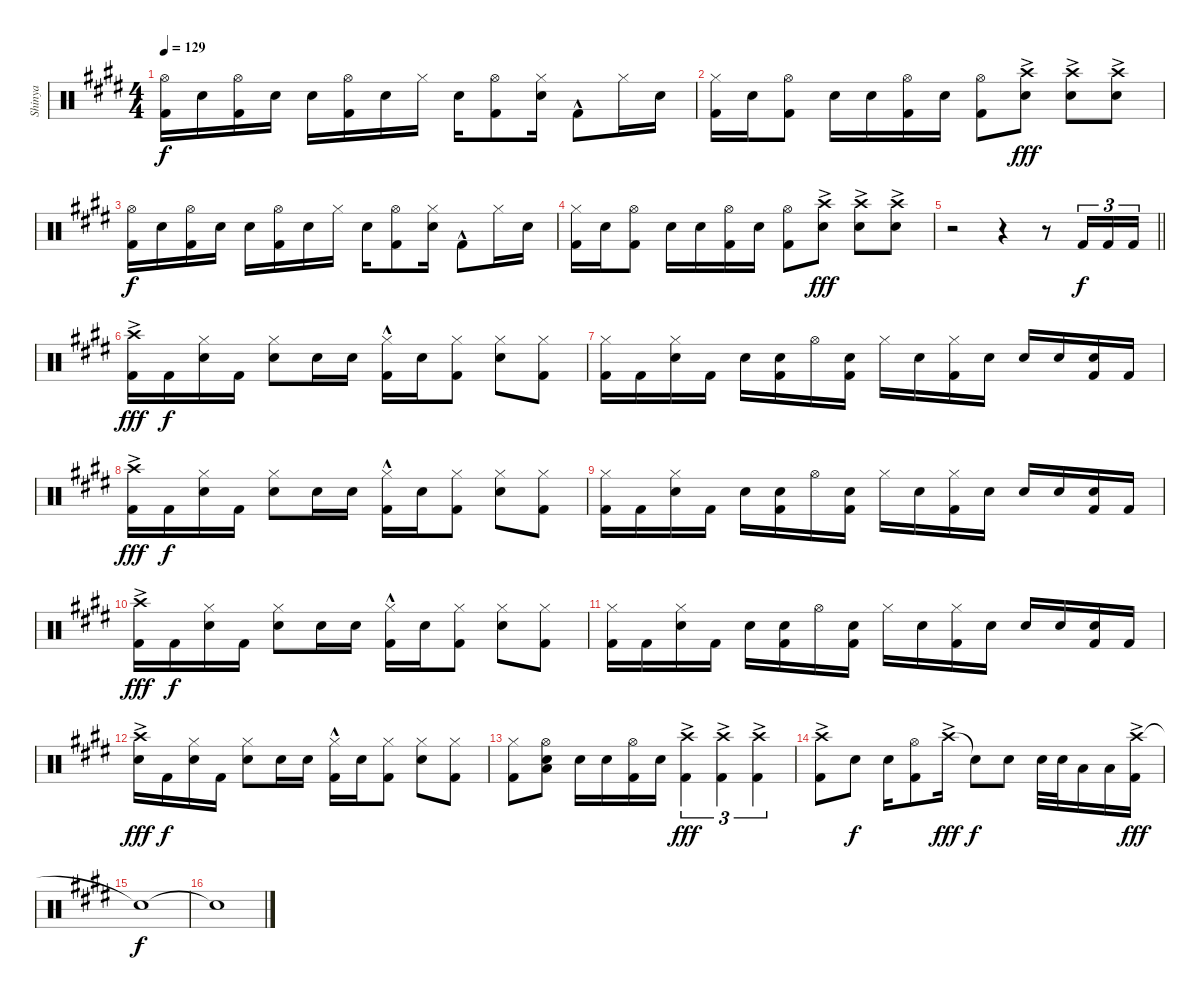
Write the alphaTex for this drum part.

\track ("Shinya" "Shinya") {instrument percussion}
\staff {score}
\articulation defaults
\ts (4 4)
\tempo 129
\clef neutral
\ks e
("Hi-Hat (open)" "Kick (hit) 2").16{dy f} "Snare (hit) 2".16 ("Hi-Hat (open)" "Kick (hit) 2").16 "Snare (hit) 2".16 "Snare (hit) 2".16 ("Hi-Hat (open)" "Kick (hit) 2").16 "Snare (hit) 2".16 "Hi-Hat (closed)".16 "Snare (hit) 2".16 ("Hi-Hat (open)" "Kick (hit) 2").8 ("Hi-Hat (closed)" "Snare (hit) 2").16 "Kick (hit) 2"{hac}.8 "Hi-Hat (closed)".16 "Snare (hit) 2".16 |
("Hi-Hat (closed)" "Kick (hit) 2").16 "Snare (hit) 2".16 ("Hi-Hat (open)" "Kick (hit) 2").8 "Snare (hit) 2".16 "Snare (hit) 2".16 ("Hi-Hat (open)" "Kick (hit) 2").16 "Snare (hit) 2".16 ("Hi-Hat (open)" "Kick (hit) 2").8 ("Crash high (hit)"{ac} "Snare (hit) 2").8{dy fff} ("Crash high (hit)"{ac} "Snare (hit) 2").8 ("Crash high (hit)"{ac} "Snare (hit) 2").8 |
("Hi-Hat (open)" "Kick (hit) 2").16{dy f} "Snare (hit) 2".16 ("Hi-Hat (open)" "Kick (hit) 2").16 "Snare (hit) 2".16 "Snare (hit) 2".16 ("Hi-Hat (open)" "Kick (hit) 2").16 "Snare (hit) 2".16 "Hi-Hat (closed)".16 "Snare (hit) 2".16 ("Hi-Hat (open)" "Kick (hit) 2").8 ("Hi-Hat (closed)" "Snare (hit) 2").16 "Kick (hit) 2"{hac}.8 "Hi-Hat (closed)".16 "Snare (hit) 2".16 |
("Hi-Hat (closed)" "Kick (hit) 2").16 "Snare (hit) 2".16 ("Hi-Hat (open)" "Kick (hit) 2").8 "Snare (hit) 2".16 "Snare (hit) 2".16 ("Hi-Hat (open)" "Kick (hit) 2").16 "Snare (hit) 2".16 ("Hi-Hat (open)" "Kick (hit) 2").8 ("Crash high (hit)"{ac} "Snare (hit) 2").8{dy fff} ("Crash high (hit)"{ac} "Snare (hit) 2").8 ("Crash high (hit)"{ac} "Snare (hit) 2").8 |
\barLineRight lightlight
r.2 r.4 r.8 "Kick (hit) 2".16{tu (3 2) dy f} "Kick (hit) 2".16{tu (3 2)} "Kick (hit) 2".16{tu (3 2)} |
("Crash high (hit)"{ac} "Kick (hit) 2").16{dy fff} "Kick (hit) 2".16{dy f} ("Hi-Hat (closed)" "Snare (hit) 2").16 "Kick (hit) 2".16 ("Hi-Hat (closed)" "Snare (hit) 2").8 "Snare (hit) 2".16 "Snare (hit) 2".16 ("Hi-Hat (closed)" "Kick (hit) 2"{hac}).16 "Snare (hit) 2".16 ("Hi-Hat (closed)" "Kick (hit) 2").8 ("Hi-Hat (closed)" "Snare (hit) 2").8 ("Hi-Hat (closed)" "Kick (hit) 2").8 |
("Hi-Hat (closed)" "Kick (hit) 2").16 "Kick (hit) 2".16 ("Hi-Hat (closed)" "Snare (hit) 2").16 "Kick (hit) 2".16 "Snare (hit) 2".16 ("Snare (hit) 2" "Kick (hit) 2").16 "Hi-Hat (open)".16 ("Snare (hit) 2" "Kick (hit) 2").16 "Hi-Hat (closed)".16 "Snare (hit) 2".16 ("Hi-Hat (closed)" "Kick (hit) 2").16 "Snare (hit) 2".16 "Snare (hit) 2".16 "Snare (hit) 2".16 ("Snare (hit) 2" "Kick (hit) 2").16 "Kick (hit) 2".16 |
("Crash high (hit)"{ac} "Kick (hit) 2").16{dy fff} "Kick (hit) 2".16{dy f} ("Hi-Hat (closed)" "Snare (hit) 2").16 "Kick (hit) 2".16 ("Hi-Hat (closed)" "Snare (hit) 2").8 "Snare (hit) 2".16 "Snare (hit) 2".16 ("Hi-Hat (closed)" "Kick (hit) 2"{hac}).16 "Snare (hit) 2".16 ("Hi-Hat (closed)" "Kick (hit) 2").8 ("Hi-Hat (closed)" "Snare (hit) 2").8 ("Hi-Hat (closed)" "Kick (hit) 2").8 |
("Hi-Hat (closed)" "Kick (hit) 2").16 "Kick (hit) 2".16 ("Hi-Hat (closed)" "Snare (hit) 2").16 "Kick (hit) 2".16 "Snare (hit) 2".16 ("Snare (hit) 2" "Kick (hit) 2").16 "Hi-Hat (open)".16 ("Snare (hit) 2" "Kick (hit) 2").16 "Hi-Hat (closed)".16 "Snare (hit) 2".16 ("Hi-Hat (closed)" "Kick (hit) 2").16 "Snare (hit) 2".16 "Snare (hit) 2".16 "Snare (hit) 2".16 ("Snare (hit) 2" "Kick (hit) 2").16 "Kick (hit) 2".16 |
("Crash high (hit)"{ac} "Kick (hit) 2").16{dy fff} "Kick (hit) 2".16{dy f} ("Hi-Hat (closed)" "Snare (hit) 2").16 "Kick (hit) 2".16 ("Hi-Hat (closed)" "Snare (hit) 2").8 "Snare (hit) 2".16 "Snare (hit) 2".16 ("Hi-Hat (closed)" "Kick (hit) 2"{hac}).16 "Snare (hit) 2".16 ("Hi-Hat (closed)" "Kick (hit) 2").8 ("Hi-Hat (closed)" "Snare (hit) 2").8 ("Hi-Hat (closed)" "Kick (hit) 2").8 |
("Hi-Hat (closed)" "Kick (hit) 2").16 "Kick (hit) 2".16 ("Hi-Hat (closed)" "Snare (hit) 2").16 "Kick (hit) 2".16 "Snare (hit) 2".16 ("Snare (hit) 2" "Kick (hit) 2").16 "Hi-Hat (open)".16 ("Snare (hit) 2" "Kick (hit) 2").16 "Hi-Hat (closed)".16 "Snare (hit) 2".16 ("Hi-Hat (closed)" "Kick (hit) 2").16 "Snare (hit) 2".16 "Snare (hit) 2".16 "Snare (hit) 2".16 ("Snare (hit) 2" "Kick (hit) 2").16 "Kick (hit) 2".16 |
("Crash high (hit)"{ac} "Snare (hit) 2").16{dy fff} "Kick (hit) 2".16{dy f} ("Hi-Hat (closed)" "Snare (hit) 2").16 "Kick (hit) 2".16 ("Hi-Hat (closed)" "Snare (hit) 2").8 "Snare (hit) 2".16 "Snare (hit) 2".16 ("Hi-Hat (closed)" "Kick (hit) 2"{hac}).16 "Snare (hit) 2".16 ("Hi-Hat (closed)" "Kick (hit) 2").8 ("Hi-Hat (closed)" "Snare (hit) 2").8 ("Hi-Hat (closed)" "Kick (hit) 2").8 |
("Hi-Hat (closed)" "Kick (hit) 2").8 ("Hi-Hat (open)" "Snare (hit) 2" "Low Floor Tom (hit)").8 "Snare (hit) 2".16 "Snare (hit) 2".16 ("Hi-Hat (open)" "Kick (hit) 2").16 "Snare (hit) 2".16 ("Crash high (hit)"{ac} "Kick (hit) 2").4{tu (3 2) dy fff} ("Crash high (hit)"{ac} "Kick (hit) 2").4{tu (3 2)} ("Crash high (hit)"{ac} "Kick (hit) 2").4{tu (3 2)} |
("Crash high (hit)"{ac} "Kick (hit) 2").8 "Snare (hit) 2".8{dy f} "Snare (hit) 2".16 ("Hi-Hat (open)" "Kick (hit) 2").8 "Crash high (hit)"{ac}.16{dy fff} "Snare (hit)"{t}.8{dy f} "Snare (hit) 2".8 "Snare (hit) 2".32 "Snare (hit) 2".32 "Low Tom (hit)".16 "Low Floor Tom (hit)".16 ("Crash high (hit)"{ac} "Kick (hit) 2").16{dy fff} |
"Snare (hit)"{t}.1{dy f} |
"Snare (hit)"{t}.1
